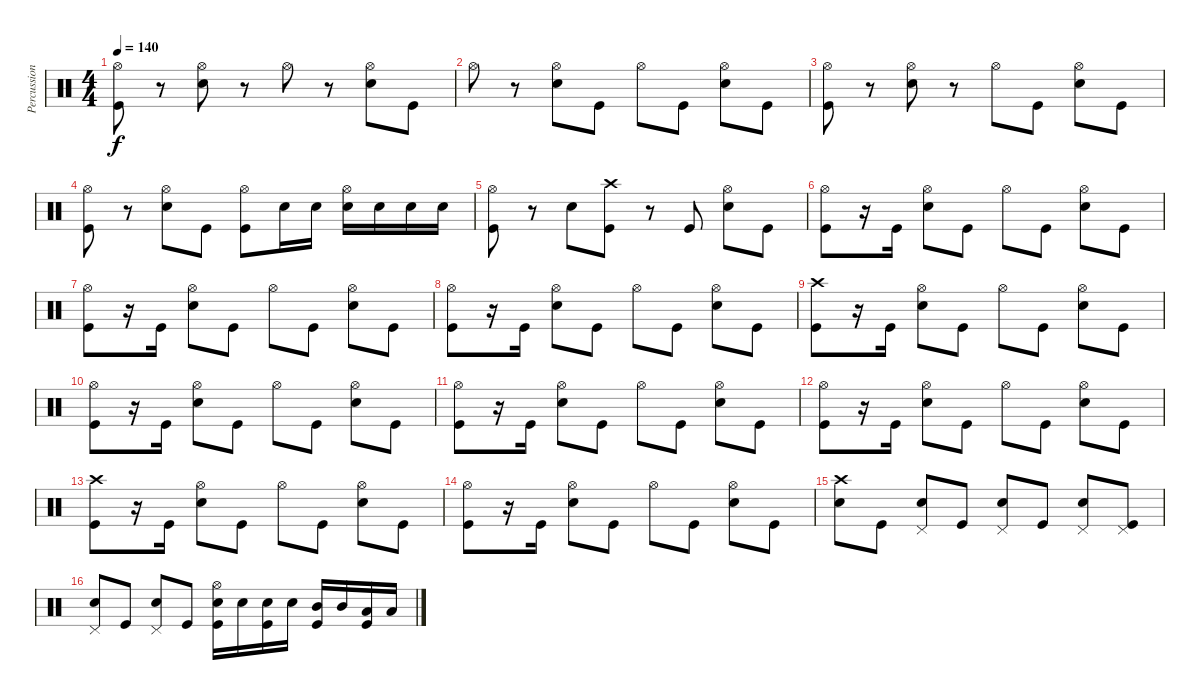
\track ("Percussion" "Percussion") {instrument percussion}
\staff {score}
\articulation defaults
\ts (4 4)
\tempo 140
\clef neutral
\ks c
("Hi-Hat (open)" "Kick (hit)").8{dy f} r.8 ("Hi-Hat (open)" "Snare (hit) 2").8 r.8 "Hi-Hat (open)".8 r.8 ("Hi-Hat (open)" "Snare (hit) 2").8 "Kick (hit)".8 |
"Hi-Hat (open)".8 r.8 ("Hi-Hat (open)" "Snare (hit) 2").8 "Kick (hit)".8 "Hi-Hat (open)".8 "Kick (hit)".8 ("Hi-Hat (open)" "Snare (hit) 2").8 "Kick (hit)".8 |
("Hi-Hat (open)" "Kick (hit)").8 r.8 ("Hi-Hat (open)" "Snare (hit) 2").8 r.8 "Hi-Hat (open)".8 "Kick (hit)".8 ("Hi-Hat (open)" "Snare (hit) 2").8 "Kick (hit)".8 |
("Hi-Hat (open)" "Kick (hit)").8 r.8 ("Hi-Hat (open)" "Snare (hit) 2").8 "Kick (hit)".8 ("Hi-Hat (open)" "Kick (hit)").8 "Snare (hit) 2".16 "Snare (hit) 2".16 ("Hi-Hat (open)" "Snare (hit) 2").16 "Snare (hit) 2".16 "Snare (hit) 2".16 "Snare (hit) 2".16 |
("Hi-Hat (open)" "Kick (hit)").8 r.8 "Snare (hit) 2".8 ("Crash high (hit)" "Kick (hit)").8 r.8 "Kick (hit)".8 ("Hi-Hat (open)" "Snare (hit) 2").8 "Kick (hit)".8 |
("Hi-Hat (open)" "Kick (hit)").8 r.16 "Kick (hit)".16 ("Hi-Hat (open)" "Snare (hit) 2").8 "Kick (hit)".8 "Hi-Hat (open)".8 "Kick (hit)".8 ("Hi-Hat (open)" "Snare (hit) 2").8 "Kick (hit)".8 |
("Hi-Hat (open)" "Kick (hit)").8 r.16 "Kick (hit)".16 ("Hi-Hat (open)" "Snare (hit) 2").8 "Kick (hit)".8 "Hi-Hat (open)".8 "Kick (hit)".8 ("Hi-Hat (open)" "Snare (hit) 2").8 "Kick (hit)".8 |
("Hi-Hat (open)" "Kick (hit)").8 r.16 "Kick (hit)".16 ("Hi-Hat (open)" "Snare (hit) 2").8 "Kick (hit)".8 "Hi-Hat (open)".8 "Kick (hit)".8 ("Hi-Hat (open)" "Snare (hit) 2").8 "Kick (hit)".8 |
("Crash high (hit)" "Kick (hit)").8 r.16 "Kick (hit)".16 ("Hi-Hat (open)" "Snare (hit) 2").8 "Kick (hit)".8 "Hi-Hat (open)".8 "Kick (hit)".8 ("Hi-Hat (open)" "Snare (hit) 2").8 "Kick (hit)".8 |
("Hi-Hat (open)" "Kick (hit)").8 r.16 "Kick (hit)".16 ("Hi-Hat (open)" "Snare (hit) 2").8 "Kick (hit)".8 "Hi-Hat (open)".8 "Kick (hit)".8 ("Hi-Hat (open)" "Snare (hit) 2").8 "Kick (hit)".8 |
("Hi-Hat (open)" "Kick (hit)").8 r.16 "Kick (hit)".16 ("Hi-Hat (open)" "Snare (hit) 2").8 "Kick (hit)".8 "Hi-Hat (open)".8 "Kick (hit)".8 ("Hi-Hat (open)" "Snare (hit) 2").8 "Kick (hit)".8 |
("Hi-Hat (open)" "Kick (hit)").8 r.16 "Kick (hit)".16 ("Hi-Hat (open)" "Snare (hit) 2").8 "Kick (hit)".8 "Hi-Hat (open)".8 "Kick (hit)".8 ("Hi-Hat (open)" "Snare (hit) 2").8 "Kick (hit)".8 |
("Crash high (hit)" "Kick (hit)").8 r.16 "Kick (hit)".16 ("Hi-Hat (open)" "Snare (hit) 2").8 "Kick (hit)".8 "Hi-Hat (open)".8 "Kick (hit)".8 ("Hi-Hat (open)" "Snare (hit) 2").8 "Kick (hit)".8 |
("Hi-Hat (open)" "Kick (hit)").8 r.16 "Kick (hit)".16 ("Hi-Hat (open)" "Snare (hit) 2").8 "Kick (hit)".8 "Hi-Hat (open)".8 "Kick (hit)".8 ("Hi-Hat (open)" "Snare (hit) 2").8 "Kick (hit)".8 |
("Crash high (hit)" "Snare (hit) 2").8 "Kick (hit)".8 ("Pedal Hi-Hat (hit)" "Snare (hit) 2").8 "Kick (hit)".8 ("Pedal Hi-Hat (hit)" "Snare (hit) 2").8 "Kick (hit)".8 ("Pedal Hi-Hat (hit)" "Snare (hit) 2").8 ("Pedal Hi-Hat (hit)" "Kick (hit)").8 |
("Pedal Hi-Hat (hit)" "Snare (hit) 2").8 "Kick (hit)".8 ("Pedal Hi-Hat (hit)" "Snare (hit) 2").8 "Kick (hit)".8 ("Hi-Hat (open)" "Snare (hit) 2" "Kick (hit)").16 "Snare (hit) 2".16 ("Snare (hit) 2" "Kick (hit)").16 "Snare (hit) 2".16 ("Mid Tom (hit)" "Kick (hit)").16 "Mid Tom (hit)".16 ("Low Tom (hit)" "Kick (hit)").16 "Low Floor Tom (hit)".16
